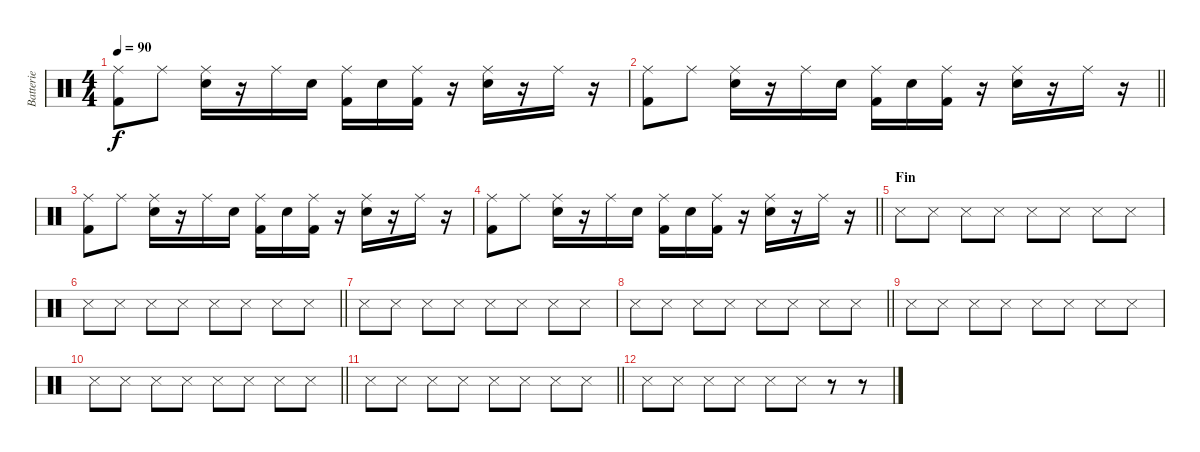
\track ("Batterie" "Batterie") {instrument percussion}
\staff {score}
\articulation defaults
\ts (4 4)
\tempo 90
\clef neutral
\ks c
("Ride (middle)" "Kick (hit) 2").8{dy f} "Ride (middle)".8 ("Ride (middle)" "Electric Snare (hit)").16 r.16 "Ride (middle)".16 "Electric Snare (hit)".16 ("Ride (middle)" "Kick (hit) 2").16 "Electric Snare (hit)".16 ("Ride (middle)" "Kick (hit) 2").16 r.16 ("Ride (middle)" "Electric Snare (hit)").16 r.16 "Ride (middle)".16 r.16 |
\barLineRight lightlight
("Ride (middle)" "Kick (hit) 2").8 "Ride (middle)".8 ("Ride (middle)" "Electric Snare (hit)").16 r.16 "Ride (middle)".16 "Electric Snare (hit)".16 ("Ride (middle)" "Kick (hit) 2").16 "Electric Snare (hit)".16 ("Ride (middle)" "Kick (hit) 2").16 r.16 ("Ride (middle)" "Electric Snare (hit)").16 r.16 "Ride (middle)".16 r.16 |
("Ride (middle)" "Kick (hit) 2").8 "Ride (middle)".8 ("Ride (middle)" "Electric Snare (hit)").16 r.16 "Ride (middle)".16 "Electric Snare (hit)".16 ("Ride (middle)" "Kick (hit) 2").16 "Electric Snare (hit)".16 ("Ride (middle)" "Kick (hit) 2").16 r.16 ("Ride (middle)" "Electric Snare (hit)").16 r.16 "Ride (middle)".16 r.16 |
\barLineRight lightlight
("Ride (middle)" "Kick (hit) 2").8 "Ride (middle)".8 ("Ride (middle)" "Electric Snare (hit)").16 r.16 "Ride (middle)".16 "Electric Snare (hit)".16 ("Ride (middle)" "Kick (hit) 2").16 "Electric Snare (hit)".16 ("Ride (middle)" "Kick (hit) 2").16 r.16 ("Ride (middle)" "Electric Snare (hit)").16 r.16 "Ride (middle)".16 r.16 |
\section ("" "Fin")
"Snare (side stick) 3".8 "Snare (side stick) 3".8 "Snare (side stick) 3".8 "Snare (side stick) 3".8 "Snare (side stick) 3".8 "Snare (side stick) 3".8 "Snare (side stick) 3".8 "Snare (side stick) 3".8 |
\barLineRight lightlight "Snare (side stick) 3".8 "Snare (side stick) 3".8 "Snare (side stick) 3".8 "Snare (side stick) 3".8 "Snare (side stick) 3".8 "Snare (side stick) 3".8 "Snare (side stick) 3".8 "Snare (side stick) 3".8
|
"Snare (side stick) 3".8 "Snare (side stick) 3".8 "Snare (side stick) 3".8 "Snare (side stick) 3".8 "Snare (side stick) 3".8 "Snare (side stick) 3".8 "Snare (side stick) 3".8 "Snare (side stick) 3".8 |
\barLineRight lightlight "Snare (side stick) 3".8 "Snare (side stick) 3".8 "Snare (side stick) 3".8 "Snare (side stick) 3".8 "Snare (side stick) 3".8 "Snare (side stick) 3".8 "Snare (side stick) 3".8 "Snare (side stick) 3".8
|
"Snare (side stick) 3".8 "Snare (side stick) 3".8 "Snare (side stick) 3".8 "Snare (side stick) 3".8 "Snare (side stick) 3".8 "Snare (side stick) 3".8 "Snare (side stick) 3".8 "Snare (side stick) 3".8 |
\barLineRight lightlight "Snare (side stick) 3".8 "Snare (side stick) 3".8 "Snare (side stick) 3".8 "Snare (side stick) 3".8 "Snare (side stick) 3".8 "Snare (side stick) 3".8 "Snare (side stick) 3".8 "Snare (side stick) 3".8
|
\barLineRight lightlight "Snare (side stick) 3".8 "Snare (side stick) 3".8 "Snare (side stick) 3".8 "Snare (side stick) 3".8 "Snare (side stick) 3".8 "Snare (side stick) 3".8 "Snare (side stick) 3".8 "Snare (side stick) 3".8
|
"Snare (side stick) 3".8 "Snare (side stick) 3".8 "Snare (side stick) 3".8 "Snare (side stick) 3".8 "Snare (side stick) 3".8 "Snare (side stick) 3".8 r.8 r.8
